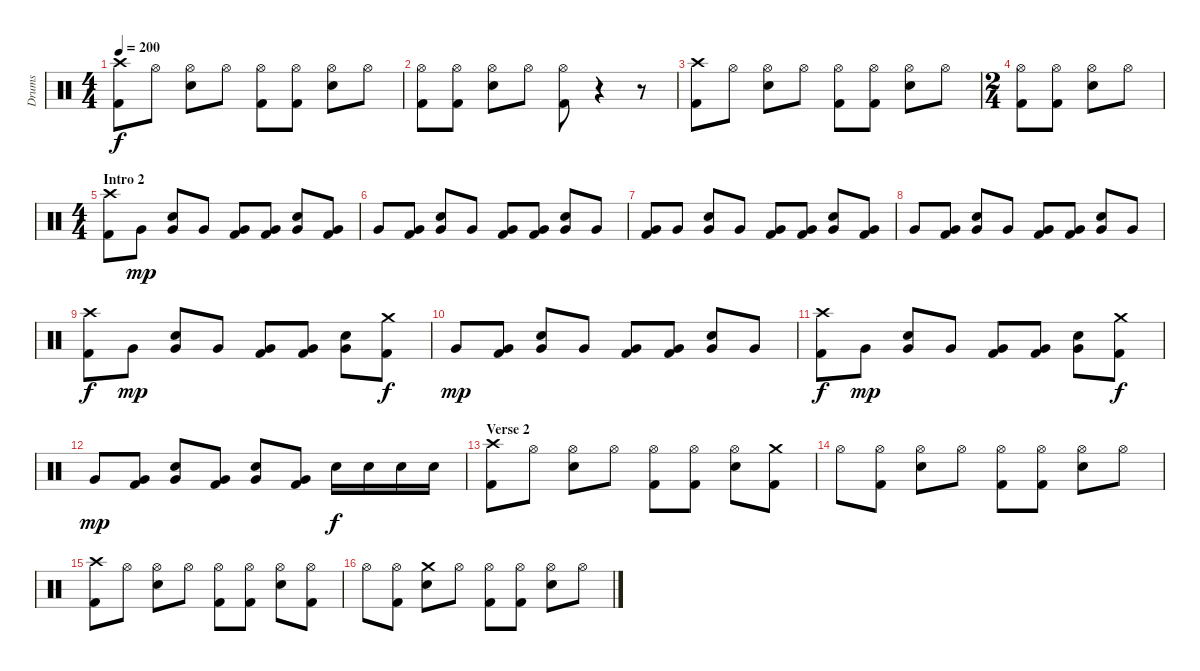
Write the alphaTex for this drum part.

\track ("Drums" "Drums") {instrument percussion}
\staff {score}
\articulation defaults
\ts (4 4)
\tempo 200
\clef neutral
\ks c
("Crash high (hit)" "Kick (hit) 2").8{dy f} "Hi-Hat (open)".8 ("Hi-Hat (open)" "Electric Snare (hit)").8 "Hi-Hat (open)".8 ("Hi-Hat (open)" "Kick (hit) 2").8 ("Hi-Hat (open)" "Kick (hit) 2").8 ("Hi-Hat (open)" "Electric Snare (hit)").8 "Hi-Hat (open)".8 |
("Hi-Hat (open)" "Kick (hit) 2").8 ("Hi-Hat (open)" "Kick (hit) 2").8 ("Hi-Hat (open)" "Electric Snare (hit)").8 "Hi-Hat (open)".8 ("Hi-Hat (open)" "Kick (hit) 2").8 r.4 r.8 |
("Crash high (hit)" "Kick (hit) 2").8 "Hi-Hat (open)".8 ("Hi-Hat (open)" "Electric Snare (hit)").8 "Hi-Hat (open)".8 ("Hi-Hat (open)" "Kick (hit) 2").8 ("Hi-Hat (open)" "Kick (hit) 2").8 ("Hi-Hat (open)" "Electric Snare (hit)").8 "Hi-Hat (open)".8 |
\ts (2 4)
("Hi-Hat (open)" "Kick (hit) 2").8 ("Hi-Hat (open)" "Kick (hit) 2").8 ("Hi-Hat (open)" "Electric Snare (hit)").8 "Hi-Hat (open)".8 |
\ts (4 4)
\section ("" "Intro 2")
("Crash high (hit)" "Kick (hit) 2").8 "Very Low Tom (hit)".8{dy mp} ("Electric Snare (hit)" "Very Low Tom (hit)").8 "Very Low Tom (hit)".8 ("Very Low Tom (hit)" "Kick (hit) 2").8 ("Very Low Tom (hit)" "Kick (hit) 2").8 ("Electric Snare (hit)" "Very Low Tom (hit)").8 ("Very Low Tom (hit)" "Kick (hit) 2").8 |
"Very Low Tom (hit)".8 ("Very Low Tom (hit)" "Kick (hit) 2").8 ("Electric Snare (hit)" "Very Low Tom (hit)").8 "Very Low Tom (hit)".8 ("Very Low Tom (hit)" "Kick (hit) 2").8 ("Very Low Tom (hit)" "Kick (hit) 2").8 ("Electric Snare (hit)" "Very Low Tom (hit)").8 "Very Low Tom (hit)".8 |
("Very Low Tom (hit)" "Kick (hit) 2").8 "Very Low Tom (hit)".8 ("Electric Snare (hit)" "Very Low Tom (hit)").8 "Very Low Tom (hit)".8 ("Very Low Tom (hit)" "Kick (hit) 2").8 ("Very Low Tom (hit)" "Kick (hit) 2").8 ("Electric Snare (hit)" "Very Low Tom (hit)").8 ("Very Low Tom (hit)" "Kick (hit) 2").8 |
"Very Low Tom (hit)".8 ("Very Low Tom (hit)" "Kick (hit) 2").8 ("Electric Snare (hit)" "Very Low Tom (hit)").8 "Very Low Tom (hit)".8 ("Very Low Tom (hit)" "Kick (hit) 2").8 ("Very Low Tom (hit)" "Kick (hit) 2").8 ("Electric Snare (hit)" "Very Low Tom (hit)").8 "Very Low Tom (hit)".8 |
("Crash high (hit)" "Kick (hit) 2").8{dy f} "Very Low Tom (hit)".8{dy mp} ("Electric Snare (hit)" "Very Low Tom (hit)").8 "Very Low Tom (hit)".8 ("Very Low Tom (hit)" "Kick (hit) 2").8 ("Very Low Tom (hit)" "Kick (hit) 2").8 ("Electric Snare (hit)" "Very Low Tom (hit)").8 ("Crash medium (hit)" "Kick (hit) 2").8{dy f} |
"Very Low Tom (hit)".8{dy mp} ("Very Low Tom (hit)" "Kick (hit) 2").8 ("Electric Snare (hit)" "Very Low Tom (hit)").8 "Very Low Tom (hit)".8 ("Very Low Tom (hit)" "Kick (hit) 2").8 ("Very Low Tom (hit)" "Kick (hit) 2").8 ("Electric Snare (hit)" "Very Low Tom (hit)").8 "Very Low Tom (hit)".8 |
("Crash high (hit)" "Kick (hit) 2").8{dy f} "Very Low Tom (hit)".8{dy mp} ("Electric Snare (hit)" "Very Low Tom (hit)").8 "Very Low Tom (hit)".8 ("Very Low Tom (hit)" "Kick (hit) 2").8 ("Very Low Tom (hit)" "Kick (hit) 2").8 ("Electric Snare (hit)" "Very Low Tom (hit)").8 ("Crash medium (hit)" "Kick (hit) 2").8{dy f} |
"Very Low Tom (hit)".8{dy mp} ("Very Low Tom (hit)" "Kick (hit) 2").8 ("Electric Snare (hit)" "Very Low Tom (hit)").8 ("Very Low Tom (hit)" "Kick (hit) 2").8 ("Electric Snare (hit)" "Very Low Tom (hit)").8 ("Very Low Tom (hit)" "Kick (hit) 2").8 "Electric Snare (hit)".16{dy f} "Electric Snare (hit)".16 "Electric Snare (hit)".16 "Electric Snare (hit)".16 |
\section ("" "Verse 2")
("Crash high (hit)" "Kick (hit) 2").8 "Hi-Hat (open)".8 ("Hi-Hat (open)" "Electric Snare (hit)").8 "Hi-Hat (open)".8 ("Hi-Hat (open)" "Kick (hit) 2").8 ("Hi-Hat (open)" "Kick (hit) 2").8 ("Hi-Hat (open)" "Electric Snare (hit)").8 ("Crash medium (hit)" "Kick (hit) 2").8 |
"Hi-Hat (open)".8 ("Hi-Hat (open)" "Kick (hit) 2").8 ("Hi-Hat (open)" "Electric Snare (hit)").8 "Hi-Hat (open)".8 ("Hi-Hat (open)" "Kick (hit) 2").8 ("Hi-Hat (open)" "Kick (hit) 2").8 ("Hi-Hat (open)" "Electric Snare (hit)").8 "Hi-Hat (open)".8 |
("Crash high (hit)" "Kick (hit) 2").8 "Hi-Hat (open)".8 ("Hi-Hat (open)" "Electric Snare (hit)").8 "Hi-Hat (open)".8 ("Hi-Hat (open)" "Kick (hit) 2").8 ("Hi-Hat (open)" "Kick (hit) 2").8 ("Hi-Hat (open)" "Electric Snare (hit)").8 ("Hi-Hat (open)" "Kick (hit) 2").8 |
"Hi-Hat (open)".8 ("Hi-Hat (open)" "Kick (hit) 2").8 ("Crash medium (hit)" "Electric Snare (hit)").8 "Hi-Hat (open)".8 ("Hi-Hat (open)" "Kick (hit) 2").8 ("Hi-Hat (open)" "Kick (hit) 2").8 ("Hi-Hat (open)" "Electric Snare (hit)").8 "Hi-Hat (open)".8
